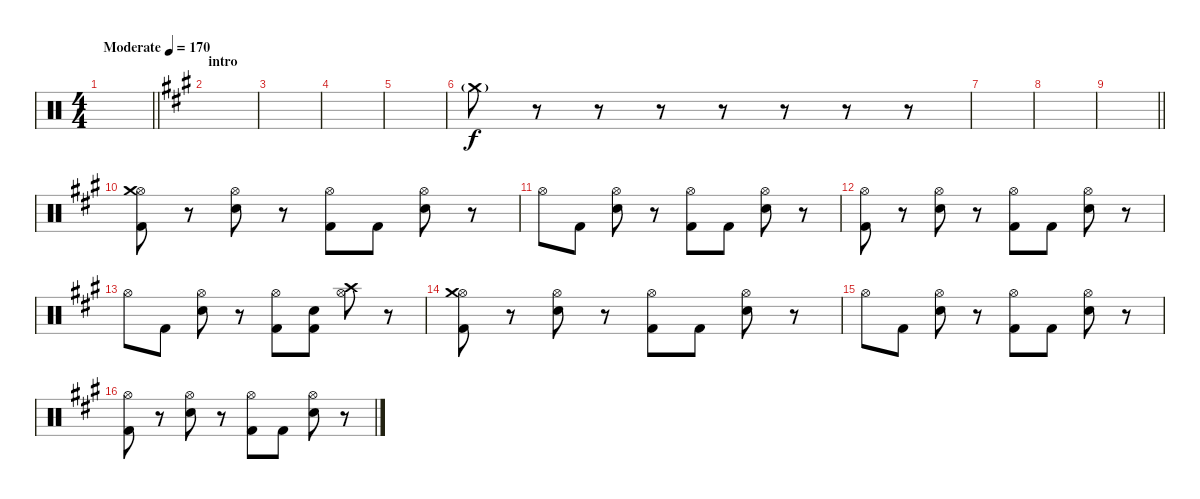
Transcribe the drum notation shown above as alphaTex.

\track "" {instrument percussion}
\staff {score}
\articulation defaults
\ts (4 4)
\tempo (170 "Moderate")
\clef neutral
\barLineRight lightlight
\ks c
|
\section ("" "intro")
\ks f#minor
|
|
|
|
"Crash medium (hit)"{g}.8 r.8 r.8 r.8 r.8 r.8 r.8 r.8 |
|
|
\barLineRight lightlight
|
("Kick (hit) 2" "Hi-Hat (open)" "Crash medium (hit)").8{dy f} r.8 ("Electric Snare (hit)" "Hi-Hat (open)").8 r.8 ("Kick (hit) 2" "Hi-Hat (open)").8 "Kick (hit) 2".8 ("Electric Snare (hit)" "Hi-Hat (open)").8 r.8 |
"Hi-Hat (open)".8 "Kick (hit) 2".8 ("Electric Snare (hit)" "Hi-Hat (open)").8 r.8 ("Kick (hit) 2" "Hi-Hat (open)").8 "Kick (hit) 2".8 ("Electric Snare (hit)" "Hi-Hat (open)").8 r.8 |
("Kick (hit) 2" "Hi-Hat (open)").8 r.8 ("Electric Snare (hit)" "Hi-Hat (open)").8 r.8 ("Kick (hit) 2" "Hi-Hat (open)").8 "Kick (hit) 2".8 ("Electric Snare (hit)" "Hi-Hat (open)").8 r.8 |
"Hi-Hat (open)".8 "Kick (hit) 2".8 ("Electric Snare (hit)" "Hi-Hat (open)").8 r.8 ("Kick (hit) 2" "Hi-Hat (open)").8 ("Kick (hit) 2" "Electric Snare (hit)").8 ("Hi-Hat (open)" "Crash high (hit)").8 r.8 |
("Kick (hit) 2" "Hi-Hat (open)" "Crash medium (hit)").8 r.8 ("Electric Snare (hit)" "Hi-Hat (open)").8 r.8 ("Kick (hit) 2" "Hi-Hat (open)").8 "Kick (hit) 2".8 ("Electric Snare (hit)" "Hi-Hat (open)").8 r.8 |
"Hi-Hat (open)".8 "Kick (hit) 2".8 ("Electric Snare (hit)" "Hi-Hat (open)").8 r.8 ("Kick (hit) 2" "Hi-Hat (open)").8 "Kick (hit) 2".8 ("Electric Snare (hit)" "Hi-Hat (open)").8 r.8 |
("Kick (hit) 2" "Hi-Hat (open)").8 r.8 ("Electric Snare (hit)" "Hi-Hat (open)").8 r.8 ("Kick (hit) 2" "Hi-Hat (open)").8 "Kick (hit) 2".8 ("Electric Snare (hit)" "Hi-Hat (open)").8 r.8
